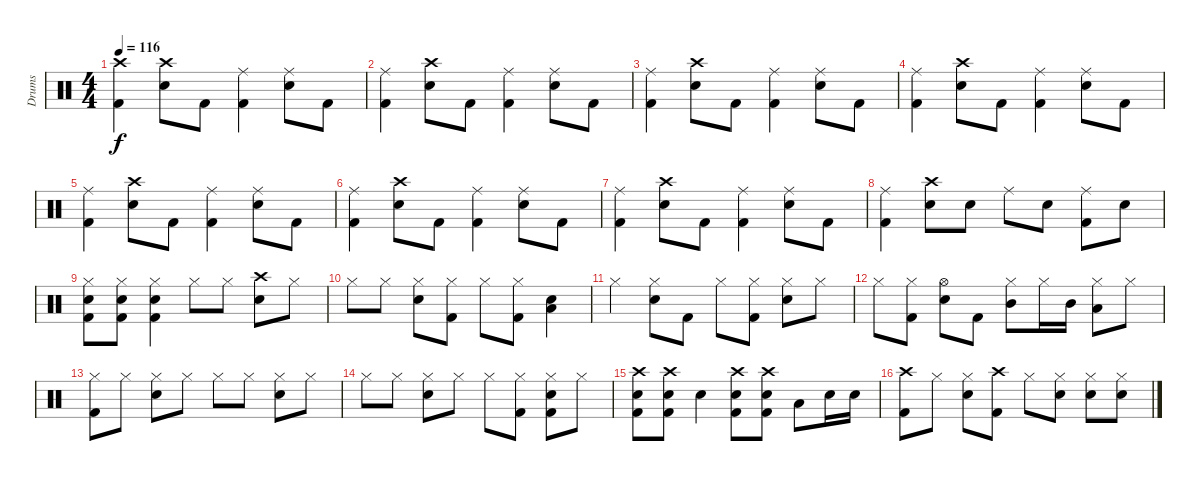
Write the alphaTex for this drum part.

\track ("Drums" "Drums") {instrument percussion}
\staff {score}
\articulation defaults
\ts (4 4)
\tempo 116
\clef neutral
\ks c
("Crash high (hit)" "Kick (hit) 2").4{dy f} ("Crash high (hit)" "Electric Snare (hit)").8 "Kick (hit) 2".8 ("Ride (middle)" "Kick (hit) 2").4 ("Ride (middle)" "Electric Snare (hit)").8 "Kick (hit) 2".8 |
("Ride (middle)" "Kick (hit) 2").4 ("Crash high (hit)" "Electric Snare (hit)").8 "Kick (hit) 2".8 ("Ride (middle)" "Kick (hit) 2").4 ("Ride (middle)" "Electric Snare (hit)").8 "Kick (hit) 2".8 |
("Ride (middle)" "Kick (hit) 2").4 ("Crash high (hit)" "Electric Snare (hit)").8 "Kick (hit) 2".8 ("Ride (middle)" "Kick (hit) 2").4 ("Ride (middle)" "Electric Snare (hit)").8 "Kick (hit) 2".8 |
("Ride (middle)" "Kick (hit) 2").4 ("Crash high (hit)" "Electric Snare (hit)").8 "Kick (hit) 2".8 ("Ride (middle)" "Kick (hit) 2").4 ("Ride (middle)" "Electric Snare (hit)").8 "Kick (hit) 2".8 |
("Ride (middle)" "Kick (hit) 2").4 ("Crash high (hit)" "Electric Snare (hit)").8 "Kick (hit) 2".8 ("Ride (middle)" "Kick (hit) 2").4 ("Ride (middle)" "Electric Snare (hit)").8 "Kick (hit) 2".8 |
("Ride (middle)" "Kick (hit) 2").4 ("Crash high (hit)" "Electric Snare (hit)").8 "Kick (hit) 2".8 ("Ride (middle)" "Kick (hit) 2").4 ("Ride (middle)" "Electric Snare (hit)").8 "Kick (hit) 2".8 |
("Ride (middle)" "Kick (hit) 2").4 ("Crash high (hit)" "Electric Snare (hit)").8 "Kick (hit) 2".8 ("Ride (middle)" "Kick (hit) 2").4 ("Ride (middle)" "Electric Snare (hit)").8 "Kick (hit) 2".8 |
("Ride (middle)" "Kick (hit) 2").4 ("Crash high (hit)" "Electric Snare (hit)").8 "Electric Snare (hit)".8 "Ride (middle)".8 "Electric Snare (hit)".8 ("Ride (middle)" "Kick (hit) 2").8 "Electric Snare (hit)".8 |
("Hi-Hat (closed)" "Electric Snare (hit)" "Kick (hit) 2").8 ("Hi-Hat (closed)" "Electric Snare (hit)" "Kick (hit) 2").8 ("Hi-Hat (closed)" "Electric Snare (hit)" "Kick (hit) 2").4 "Hi-Hat (closed)".8 "Hi-Hat (closed)".8 ("Crash high (hit)" "Electric Snare (hit)").8 "Hi-Hat (closed)".8 |
"Hi-Hat (closed)".8 "Hi-Hat (closed)".8 ("Hi-Hat (closed)" "Electric Snare (hit)").8 ("Hi-Hat (closed)" "Kick (hit) 2").8 "Hi-Hat (closed)".8 ("Hi-Hat (closed)" "Kick (hit) 2").8 ("Low Tom (hit)" "Electric Snare (hit)").4 |
"Hi-Hat (closed)".4 ("Hi-Hat (closed)" "Electric Snare (hit)").8 "Kick (hit) 2".8 "Hi-Hat (closed)".8 ("Hi-Hat (closed)" "Kick (hit) 2").8 ("Hi-Hat (closed)" "Electric Snare (hit)").8 "Hi-Hat (closed)".8 |
"Hi-Hat (closed)".8 ("Hi-Hat (closed)" "Kick (hit) 2").8 ("Hi-Hat (open)" "Electric Snare (hit)").8 "Kick (hit) 2".8 ("Hi-Hat (closed)" "Mid Tom (hit)").8 "Hi-Hat (closed)".16 "Mid Tom (hit)".16 ("Hi-Hat (closed)" "Low Tom (hit)").8 "Hi-Hat (closed)".8 |
("Hi-Hat (closed)" "Kick (hit) 2").8 "Hi-Hat (closed)".8 ("Hi-Hat (closed)" "Electric Snare (hit)").8 "Hi-Hat (closed)".8 "Hi-Hat (closed)".8 "Hi-Hat (closed)".8 ("Hi-Hat (closed)" "Electric Snare (hit)").8 "Hi-Hat (closed)".8 |
"Hi-Hat (closed)".8 "Hi-Hat (closed)".8 ("Hi-Hat (closed)" "Electric Snare (hit)").8 "Hi-Hat (closed)".8 "Hi-Hat (closed)".8 ("Hi-Hat (closed)" "Kick (hit) 2").8 ("Hi-Hat (closed)" "Electric Snare (hit)" "Kick (hit) 2").8 "Hi-Hat (closed)".8 |
("Crash high (hit)" "Electric Snare (hit)" "Kick (hit) 2").8 ("Crash high (hit)" "Electric Snare (hit)" "Kick (hit) 2").8 "Electric Snare (hit)".4 ("Crash high (hit)" "Electric Snare (hit)" "Kick (hit) 2").8 ("Crash high (hit)" "Electric Snare (hit)" "Kick (hit) 2").8 "Low Tom (hit)".8 "Electric Snare (hit)".16 "Electric Snare (hit)".16 |
("Crash high (hit)" "Kick (hit) 2").8 "Hi-Hat (closed)".8 ("Hi-Hat (closed)" "Electric Snare (hit)").8 ("Crash high (hit)" "Kick (hit) 2").8 "Hi-Hat (closed)".8 ("Hi-Hat (closed)" "Electric Snare (hit)").8 ("Hi-Hat (closed)" "Electric Snare (hit)").8 ("Hi-Hat (closed)" "Electric Snare (hit)").8
